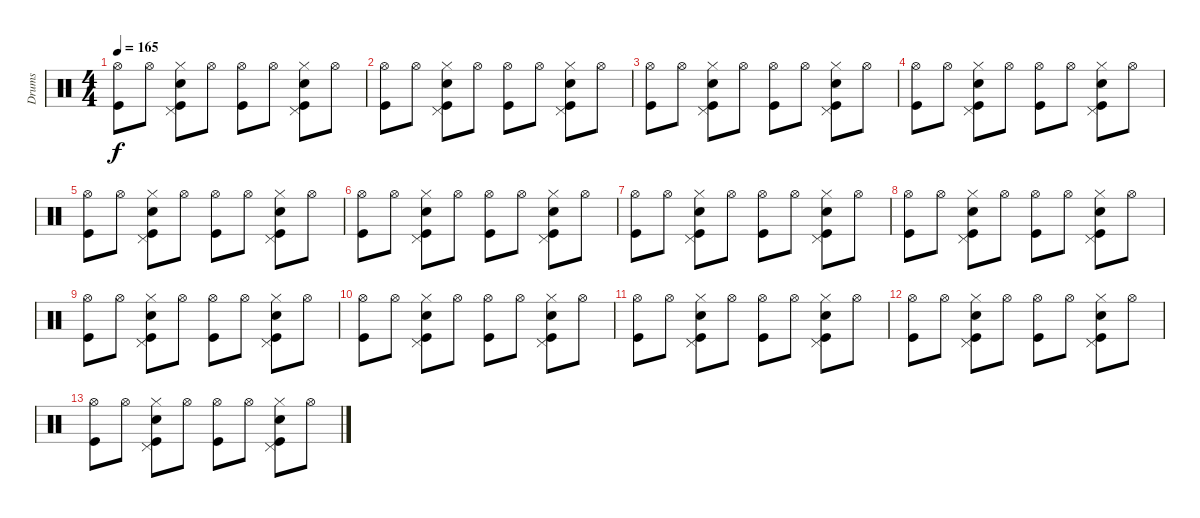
\track ("Drums" "Drums") {instrument percussion}
\staff {score}
\articulation defaults
\ts (4 4)
\tempo 165
\clef neutral
\ks c
("Hi-Hat (open)" "Kick (hit)").8{dy f} "Hi-Hat (open)".8 ("Hi-Hat (closed)" "Pedal Hi-Hat (hit)" "Snare (hit) 2" "Kick (hit)").8 "Hi-Hat (open)".8 ("Hi-Hat (open)" "Kick (hit)").8 "Hi-Hat (open)".8 ("Hi-Hat (closed)" "Pedal Hi-Hat (hit)" "Snare (hit) 2" "Kick (hit)").8 "Hi-Hat (open)".8 |
("Hi-Hat (open)" "Kick (hit)").8 "Hi-Hat (open)".8 ("Hi-Hat (closed)" "Pedal Hi-Hat (hit)" "Snare (hit) 2" "Kick (hit)").8 "Hi-Hat (open)".8 ("Hi-Hat (open)" "Kick (hit)").8 "Hi-Hat (open)".8 ("Hi-Hat (closed)" "Pedal Hi-Hat (hit)" "Snare (hit) 2" "Kick (hit)").8 "Hi-Hat (open)".8 |
("Hi-Hat (open)" "Kick (hit)").8 "Hi-Hat (open)".8 ("Hi-Hat (closed)" "Pedal Hi-Hat (hit)" "Snare (hit) 2" "Kick (hit)").8 "Hi-Hat (open)".8 ("Hi-Hat (open)" "Kick (hit)").8 "Hi-Hat (open)".8 ("Hi-Hat (closed)" "Pedal Hi-Hat (hit)" "Snare (hit) 2" "Kick (hit)").8 "Hi-Hat (open)".8 |
("Hi-Hat (open)" "Kick (hit)").8 "Hi-Hat (open)".8 ("Hi-Hat (closed)" "Pedal Hi-Hat (hit)" "Snare (hit) 2" "Kick (hit)").8 "Hi-Hat (open)".8 ("Hi-Hat (open)" "Kick (hit)").8 "Hi-Hat (open)".8 ("Hi-Hat (closed)" "Pedal Hi-Hat (hit)" "Snare (hit) 2" "Kick (hit)").8 "Hi-Hat (open)".8 |
("Hi-Hat (open)" "Kick (hit)").8 "Hi-Hat (open)".8 ("Hi-Hat (closed)" "Pedal Hi-Hat (hit)" "Snare (hit) 2" "Kick (hit)").8 "Hi-Hat (open)".8 ("Hi-Hat (open)" "Kick (hit)").8 "Hi-Hat (open)".8 ("Hi-Hat (closed)" "Pedal Hi-Hat (hit)" "Snare (hit) 2" "Kick (hit)").8 "Hi-Hat (open)".8 |
("Hi-Hat (open)" "Kick (hit)").8{volume 11} "Hi-Hat (open)".8 ("Hi-Hat (closed)" "Pedal Hi-Hat (hit)" "Snare (hit) 2" "Kick (hit)").8 "Hi-Hat (open)".8 ("Hi-Hat (open)" "Kick (hit)").8 "Hi-Hat (open)".8 ("Hi-Hat (closed)" "Pedal Hi-Hat (hit)" "Snare (hit) 2" "Kick (hit)").8 "Hi-Hat (open)".8 |
("Hi-Hat (open)" "Kick (hit)").8 "Hi-Hat (open)".8 ("Hi-Hat (closed)" "Pedal Hi-Hat (hit)" "Snare (hit) 2" "Kick (hit)").8 "Hi-Hat (open)".8 ("Hi-Hat (open)" "Kick (hit)").8 "Hi-Hat (open)".8 ("Hi-Hat (closed)" "Pedal Hi-Hat (hit)" "Snare (hit) 2" "Kick (hit)").8 "Hi-Hat (open)".8 |
("Hi-Hat (open)" "Kick (hit)").8{volume 9} "Hi-Hat (open)".8 ("Hi-Hat (closed)" "Pedal Hi-Hat (hit)" "Snare (hit) 2" "Kick (hit)").8 "Hi-Hat (open)".8 ("Hi-Hat (open)" "Kick (hit)").8 "Hi-Hat (open)".8 ("Hi-Hat (closed)" "Pedal Hi-Hat (hit)" "Snare (hit) 2" "Kick (hit)").8 "Hi-Hat (open)".8 |
("Hi-Hat (open)" "Kick (hit)").8 "Hi-Hat (open)".8 ("Hi-Hat (closed)" "Pedal Hi-Hat (hit)" "Snare (hit) 2" "Kick (hit)").8 "Hi-Hat (open)".8 ("Hi-Hat (open)" "Kick (hit)").8 "Hi-Hat (open)".8 ("Hi-Hat (closed)" "Pedal Hi-Hat (hit)" "Snare (hit) 2" "Kick (hit)").8 "Hi-Hat (open)".8 |
("Hi-Hat (open)" "Kick (hit)").8{volume 7} "Hi-Hat (open)".8 ("Hi-Hat (closed)" "Pedal Hi-Hat (hit)" "Snare (hit) 2" "Kick (hit)").8 "Hi-Hat (open)".8 ("Hi-Hat (open)" "Kick (hit)").8 "Hi-Hat (open)".8 ("Hi-Hat (closed)" "Pedal Hi-Hat (hit)" "Snare (hit) 2" "Kick (hit)").8 "Hi-Hat (open)".8 |
("Hi-Hat (open)" "Kick (hit)").8 "Hi-Hat (open)".8 ("Hi-Hat (closed)" "Pedal Hi-Hat (hit)" "Snare (hit) 2" "Kick (hit)").8 "Hi-Hat (open)".8 ("Hi-Hat (open)" "Kick (hit)").8 "Hi-Hat (open)".8 ("Hi-Hat (closed)" "Pedal Hi-Hat (hit)" "Snare (hit) 2" "Kick (hit)").8 "Hi-Hat (open)".8 |
("Hi-Hat (open)" "Kick (hit)").8{volume 5} "Hi-Hat (open)".8 ("Hi-Hat (closed)" "Pedal Hi-Hat (hit)" "Snare (hit) 2" "Kick (hit)").8 "Hi-Hat (open)".8 ("Hi-Hat (open)" "Kick (hit)").8 "Hi-Hat (open)".8 ("Hi-Hat (closed)" "Pedal Hi-Hat (hit)" "Snare (hit) 2" "Kick (hit)").8 "Hi-Hat (open)".8 |
("Hi-Hat (open)" "Kick (hit)").8{volume 0} "Hi-Hat (open)".8 ("Hi-Hat (closed)" "Pedal Hi-Hat (hit)" "Snare (hit) 2" "Kick (hit)").8 "Hi-Hat (open)".8 ("Hi-Hat (open)" "Kick (hit)").8 "Hi-Hat (open)".8 ("Hi-Hat (closed)" "Pedal Hi-Hat (hit)" "Snare (hit) 2" "Kick (hit)").8 "Hi-Hat (open)".8
